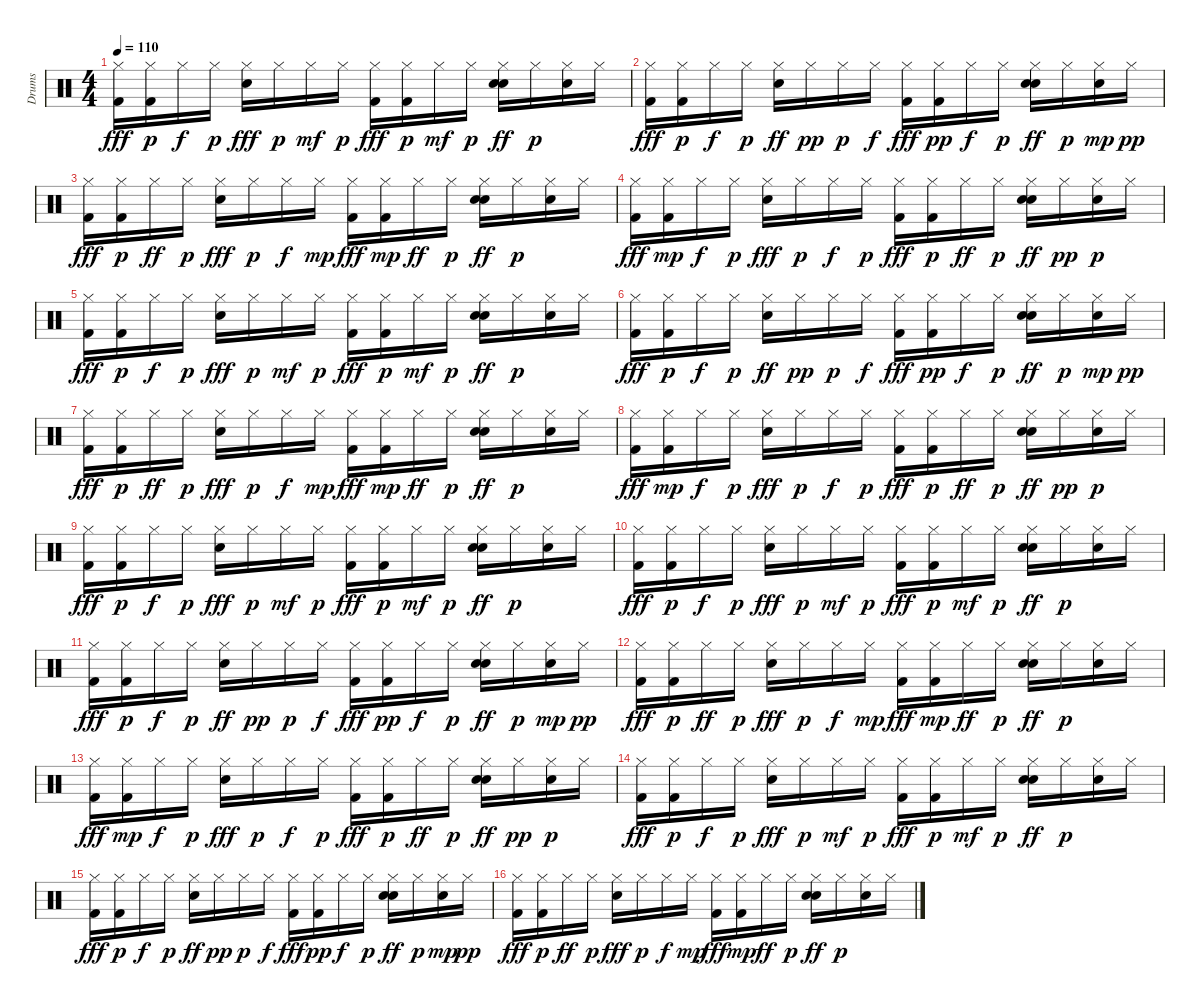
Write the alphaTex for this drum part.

\track ("Drums" "Drums") {instrument percussion}
\staff {score}
\articulation defaults
\ts (4 4)
\tempo 110
\clef neutral
\ks c
("Hi-Hat (closed)" "Kick (hit) 2").16{dy fff} ("Hi-Hat (closed)" "Kick (hit) 2").16{dy p} "Hi-Hat (closed)".16{dy f} "Hi-Hat (closed)".16{dy p} ("Hi-Hat (closed)" "Snare (hit) 2").16{dy fff} "Hi-Hat (closed)".16{dy p} "Hi-Hat (closed)".16{dy mf} "Hi-Hat (closed)".16{dy p} ("Hi-Hat (closed)" "Kick (hit) 2").16{dy fff} ("Hi-Hat (closed)" "Kick (hit) 2").16{dy p} "Hi-Hat (closed)".16{dy mf} "Hi-Hat (closed)".16{dy p} ("Hi-Hat (closed)" "Snare (hit) 2" "Hand Clap (hit)").16{dy ff} "Hi-Hat (closed)".16{dy p} ("Hi-Hat (closed)" "Hand Clap (hit)").16 "Hi-Hat (closed)".16 |
("Hi-Hat (closed)" "Kick (hit) 2").16{dy fff} ("Hi-Hat (closed)" "Kick (hit) 2").16{dy p} "Hi-Hat (closed)".16{dy f} "Hi-Hat (closed)".16{dy p} ("Hi-Hat (closed)" "Snare (hit) 2").16{dy ff} "Hi-Hat (closed)".16{dy pp} "Hi-Hat (closed)".16{dy p} "Hi-Hat (closed)".16{dy f} ("Hi-Hat (closed)" "Kick (hit) 2").16{dy fff} ("Hi-Hat (closed)" "Kick (hit) 2").16{dy pp} "Hi-Hat (closed)".16{dy f} "Hi-Hat (closed)".16{dy p} ("Hi-Hat (closed)" "Snare (hit) 2" "Hand Clap (hit)").16{dy ff} "Hi-Hat (closed)".16{dy p} ("Hi-Hat (closed)" "Hand Clap (hit)").16{dy mp} "Hi-Hat (closed)".16{dy pp} |
("Hi-Hat (closed)" "Kick (hit) 2").16{dy fff} ("Hi-Hat (closed)" "Kick (hit) 2").16{dy p} "Hi-Hat (closed)".16{dy ff} "Hi-Hat (closed)".16{dy p} ("Hi-Hat (closed)" "Snare (hit) 2").16{dy fff} "Hi-Hat (closed)".16{dy p} "Hi-Hat (closed)".16{dy f} "Hi-Hat (closed)".16{dy mp} ("Hi-Hat (closed)" "Kick (hit) 2").16{dy fff} ("Hi-Hat (closed)" "Kick (hit) 2").16{dy mp} "Hi-Hat (closed)".16{dy ff} "Hi-Hat (closed)".16{dy p} ("Hi-Hat (closed)" "Snare (hit) 2" "Hand Clap (hit)").16{dy ff} "Hi-Hat (closed)".16{dy p} ("Hi-Hat (closed)" "Hand Clap (hit)").16 "Hi-Hat (closed)".16 |
("Hi-Hat (closed)" "Kick (hit) 2").16{dy fff} ("Hi-Hat (closed)" "Kick (hit) 2").16{dy mp} "Hi-Hat (closed)".16{dy f} "Hi-Hat (closed)".16{dy p} ("Hi-Hat (closed)" "Snare (hit) 2").16{dy fff} "Hi-Hat (closed)".16{dy p} "Hi-Hat (closed)".16{dy f} "Hi-Hat (closed)".16{dy p} ("Hi-Hat (closed)" "Kick (hit) 2").16{dy fff} ("Hi-Hat (closed)" "Kick (hit) 2").16{dy p} "Hi-Hat (closed)".16{dy ff} "Hi-Hat (closed)".16{dy p} ("Hi-Hat (closed)" "Snare (hit) 2" "Hand Clap (hit)").16{dy ff} "Hi-Hat (closed)".16{dy pp} ("Hi-Hat (closed)" "Hand Clap (hit)").16{dy p} "Hi-Hat (closed)".16 |
("Hi-Hat (closed)" "Kick (hit) 2").16{dy fff} ("Hi-Hat (closed)" "Kick (hit) 2").16{dy p} "Hi-Hat (closed)".16{dy f} "Hi-Hat (closed)".16{dy p} ("Hi-Hat (closed)" "Snare (hit) 2").16{dy fff} "Hi-Hat (closed)".16{dy p} "Hi-Hat (closed)".16{dy mf} "Hi-Hat (closed)".16{dy p} ("Hi-Hat (closed)" "Kick (hit) 2").16{dy fff} ("Hi-Hat (closed)" "Kick (hit) 2").16{dy p} "Hi-Hat (closed)".16{dy mf} "Hi-Hat (closed)".16{dy p} ("Hi-Hat (closed)" "Snare (hit) 2" "Hand Clap (hit)").16{dy ff} "Hi-Hat (closed)".16{dy p} ("Hi-Hat (closed)" "Hand Clap (hit)").16 "Hi-Hat (closed)".16 |
("Hi-Hat (closed)" "Kick (hit) 2").16{dy fff} ("Hi-Hat (closed)" "Kick (hit) 2").16{dy p} "Hi-Hat (closed)".16{dy f} "Hi-Hat (closed)".16{dy p} ("Hi-Hat (closed)" "Snare (hit) 2").16{dy ff} "Hi-Hat (closed)".16{dy pp} "Hi-Hat (closed)".16{dy p} "Hi-Hat (closed)".16{dy f} ("Hi-Hat (closed)" "Kick (hit) 2").16{dy fff} ("Hi-Hat (closed)" "Kick (hit) 2").16{dy pp} "Hi-Hat (closed)".16{dy f} "Hi-Hat (closed)".16{dy p} ("Hi-Hat (closed)" "Snare (hit) 2" "Hand Clap (hit)").16{dy ff} "Hi-Hat (closed)".16{dy p} ("Hi-Hat (closed)" "Hand Clap (hit)").16{dy mp} "Hi-Hat (closed)".16{dy pp} |
("Hi-Hat (closed)" "Kick (hit) 2").16{dy fff} ("Hi-Hat (closed)" "Kick (hit) 2").16{dy p} "Hi-Hat (closed)".16{dy ff} "Hi-Hat (closed)".16{dy p} ("Hi-Hat (closed)" "Snare (hit) 2").16{dy fff} "Hi-Hat (closed)".16{dy p} "Hi-Hat (closed)".16{dy f} "Hi-Hat (closed)".16{dy mp} ("Hi-Hat (closed)" "Kick (hit) 2").16{dy fff} ("Hi-Hat (closed)" "Kick (hit) 2").16{dy mp} "Hi-Hat (closed)".16{dy ff} "Hi-Hat (closed)".16{dy p} ("Hi-Hat (closed)" "Snare (hit) 2" "Hand Clap (hit)").16{dy ff} "Hi-Hat (closed)".16{dy p} ("Hi-Hat (closed)" "Hand Clap (hit)").16 "Hi-Hat (closed)".16 |
("Hi-Hat (closed)" "Kick (hit) 2").16{dy fff} ("Hi-Hat (closed)" "Kick (hit) 2").16{dy mp} "Hi-Hat (closed)".16{dy f} "Hi-Hat (closed)".16{dy p} ("Hi-Hat (closed)" "Snare (hit) 2").16{dy fff} "Hi-Hat (closed)".16{dy p} "Hi-Hat (closed)".16{dy f} "Hi-Hat (closed)".16{dy p} ("Hi-Hat (closed)" "Kick (hit) 2").16{dy fff} ("Hi-Hat (closed)" "Kick (hit) 2").16{dy p} "Hi-Hat (closed)".16{dy ff} "Hi-Hat (closed)".16{dy p} ("Hi-Hat (closed)" "Snare (hit) 2" "Hand Clap (hit)").16{dy ff} "Hi-Hat (closed)".16{dy pp} ("Hi-Hat (closed)" "Hand Clap (hit)").16{dy p} "Hi-Hat (closed)".16 |
("Hi-Hat (closed)" "Kick (hit) 2").16{dy fff} ("Hi-Hat (closed)" "Kick (hit) 2").16{dy p} "Hi-Hat (closed)".16{dy f} "Hi-Hat (closed)".16{dy p} ("Hi-Hat (closed)" "Snare (hit) 2").16{dy fff} "Hi-Hat (closed)".16{dy p} "Hi-Hat (closed)".16{dy mf} "Hi-Hat (closed)".16{dy p} ("Hi-Hat (closed)" "Kick (hit) 2").16{dy fff} ("Hi-Hat (closed)" "Kick (hit) 2").16{dy p} "Hi-Hat (closed)".16{dy mf} "Hi-Hat (closed)".16{dy p} ("Hi-Hat (closed)" "Snare (hit) 2" "Hand Clap (hit)").16{dy ff} "Hi-Hat (closed)".16{dy p} ("Hi-Hat (closed)" "Hand Clap (hit)").16 "Hi-Hat (closed)".16 |
("Hi-Hat (closed)" "Kick (hit) 2").16{dy fff} ("Hi-Hat (closed)" "Kick (hit) 2").16{dy p} "Hi-Hat (closed)".16{dy f} "Hi-Hat (closed)".16{dy p} ("Hi-Hat (closed)" "Snare (hit) 2").16{dy fff} "Hi-Hat (closed)".16{dy p} "Hi-Hat (closed)".16{dy mf} "Hi-Hat (closed)".16{dy p} ("Hi-Hat (closed)" "Kick (hit) 2").16{dy fff} ("Hi-Hat (closed)" "Kick (hit) 2").16{dy p} "Hi-Hat (closed)".16{dy mf} "Hi-Hat (closed)".16{dy p} ("Hi-Hat (closed)" "Snare (hit) 2" "Hand Clap (hit)").16{dy ff} "Hi-Hat (closed)".16{dy p} ("Hi-Hat (closed)" "Hand Clap (hit)").16 "Hi-Hat (closed)".16 |
("Hi-Hat (closed)" "Kick (hit) 2").16{dy fff} ("Hi-Hat (closed)" "Kick (hit) 2").16{dy p} "Hi-Hat (closed)".16{dy f} "Hi-Hat (closed)".16{dy p} ("Hi-Hat (closed)" "Snare (hit) 2").16{dy ff} "Hi-Hat (closed)".16{dy pp} "Hi-Hat (closed)".16{dy p} "Hi-Hat (closed)".16{dy f} ("Hi-Hat (closed)" "Kick (hit) 2").16{dy fff} ("Hi-Hat (closed)" "Kick (hit) 2").16{dy pp} "Hi-Hat (closed)".16{dy f} "Hi-Hat (closed)".16{dy p} ("Hi-Hat (closed)" "Snare (hit) 2" "Hand Clap (hit)").16{dy ff} "Hi-Hat (closed)".16{dy p} ("Hi-Hat (closed)" "Hand Clap (hit)").16{dy mp} "Hi-Hat (closed)".16{dy pp} |
("Hi-Hat (closed)" "Kick (hit) 2").16{dy fff} ("Hi-Hat (closed)" "Kick (hit) 2").16{dy p} "Hi-Hat (closed)".16{dy ff} "Hi-Hat (closed)".16{dy p} ("Hi-Hat (closed)" "Snare (hit) 2").16{dy fff} "Hi-Hat (closed)".16{dy p} "Hi-Hat (closed)".16{dy f} "Hi-Hat (closed)".16{dy mp} ("Hi-Hat (closed)" "Kick (hit) 2").16{dy fff} ("Hi-Hat (closed)" "Kick (hit) 2").16{dy mp} "Hi-Hat (closed)".16{dy ff} "Hi-Hat (closed)".16{dy p} ("Hi-Hat (closed)" "Snare (hit) 2" "Hand Clap (hit)").16{dy ff} "Hi-Hat (closed)".16{dy p} ("Hi-Hat (closed)" "Hand Clap (hit)").16 "Hi-Hat (closed)".16 |
("Hi-Hat (closed)" "Kick (hit) 2").16{dy fff} ("Hi-Hat (closed)" "Kick (hit) 2").16{dy mp} "Hi-Hat (closed)".16{dy f} "Hi-Hat (closed)".16{dy p} ("Hi-Hat (closed)" "Snare (hit) 2").16{dy fff} "Hi-Hat (closed)".16{dy p} "Hi-Hat (closed)".16{dy f} "Hi-Hat (closed)".16{dy p} ("Hi-Hat (closed)" "Kick (hit) 2").16{dy fff} ("Hi-Hat (closed)" "Kick (hit) 2").16{dy p} "Hi-Hat (closed)".16{dy ff} "Hi-Hat (closed)".16{dy p} ("Hi-Hat (closed)" "Snare (hit) 2" "Hand Clap (hit)").16{dy ff} "Hi-Hat (closed)".16{dy pp} ("Hi-Hat (closed)" "Hand Clap (hit)").16{dy p} "Hi-Hat (closed)".16 |
("Hi-Hat (closed)" "Kick (hit) 2").16{dy fff} ("Hi-Hat (closed)" "Kick (hit) 2").16{dy p} "Hi-Hat (closed)".16{dy f} "Hi-Hat (closed)".16{dy p} ("Hi-Hat (closed)" "Snare (hit) 2").16{dy fff} "Hi-Hat (closed)".16{dy p} "Hi-Hat (closed)".16{dy mf} "Hi-Hat (closed)".16{dy p} ("Hi-Hat (closed)" "Kick (hit) 2").16{dy fff} ("Hi-Hat (closed)" "Kick (hit) 2").16{dy p} "Hi-Hat (closed)".16{dy mf} "Hi-Hat (closed)".16{dy p} ("Hi-Hat (closed)" "Snare (hit) 2" "Hand Clap (hit)").16{dy ff} "Hi-Hat (closed)".16{dy p} ("Hi-Hat (closed)" "Hand Clap (hit)").16 "Hi-Hat (closed)".16 |
("Hi-Hat (closed)" "Kick (hit) 2").16{dy fff} ("Hi-Hat (closed)" "Kick (hit) 2").16{dy p} "Hi-Hat (closed)".16{dy f} "Hi-Hat (closed)".16{dy p} ("Hi-Hat (closed)" "Snare (hit) 2").16{dy ff} "Hi-Hat (closed)".16{dy pp} "Hi-Hat (closed)".16{dy p} "Hi-Hat (closed)".16{dy f} ("Hi-Hat (closed)" "Kick (hit) 2").16{dy fff} ("Hi-Hat (closed)" "Kick (hit) 2").16{dy pp} "Hi-Hat (closed)".16{dy f} "Hi-Hat (closed)".16{dy p} ("Hi-Hat (closed)" "Snare (hit) 2" "Hand Clap (hit)").16{dy ff} "Hi-Hat (closed)".16{dy p} ("Hi-Hat (closed)" "Hand Clap (hit)").16{dy mp} "Hi-Hat (closed)".16{dy pp} |
("Hi-Hat (closed)" "Kick (hit) 2").16{dy fff} ("Hi-Hat (closed)" "Kick (hit) 2").16{dy p} "Hi-Hat (closed)".16{dy ff} "Hi-Hat (closed)".16{dy p} ("Hi-Hat (closed)" "Snare (hit) 2").16{dy fff} "Hi-Hat (closed)".16{dy p} "Hi-Hat (closed)".16{dy f} "Hi-Hat (closed)".16{dy mp} ("Hi-Hat (closed)" "Kick (hit) 2").16{dy fff} ("Hi-Hat (closed)" "Kick (hit) 2").16{dy mp} "Hi-Hat (closed)".16{dy ff} "Hi-Hat (closed)".16{dy p} ("Hi-Hat (closed)" "Snare (hit) 2" "Hand Clap (hit)").16{dy ff} "Hi-Hat (closed)".16{dy p} ("Hi-Hat (closed)" "Hand Clap (hit)").16 "Hi-Hat (closed)".16
